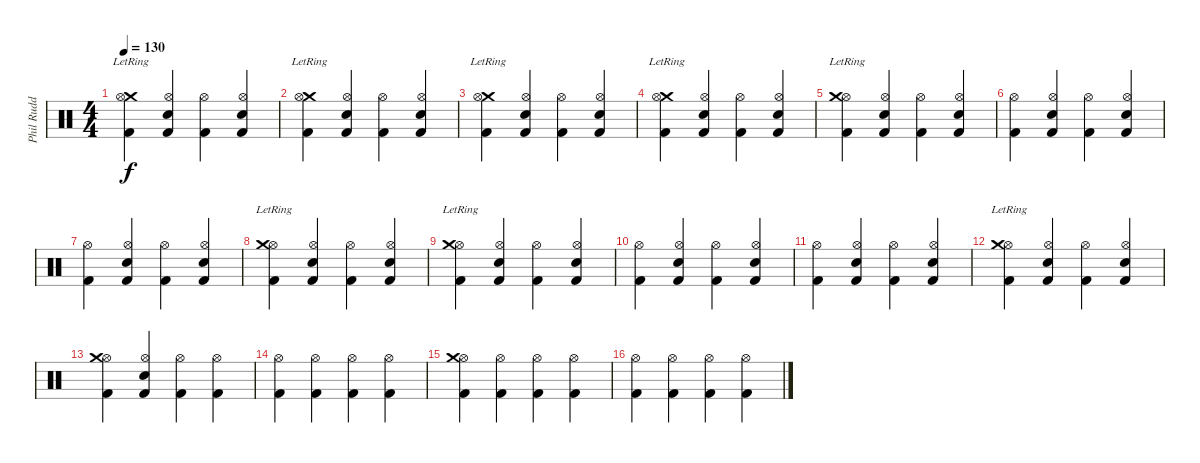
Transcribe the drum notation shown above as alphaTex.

\track ("Phil Rudd" "Phil Rudd") {instrument percussion}
\staff {score}
\articulation defaults
\ts (4 4)
\tempo 130
\clef neutral
\ks c
("Crash medium (hit)"{lr} "Kick (hit) 2" "Hi-Hat (open)").4{dy f} ("Kick (hit) 2" "Snare (hit) 2" "Hi-Hat (open)").4 ("Kick (hit) 2" "Hi-Hat (open)").4 ("Kick (hit) 2" "Snare (hit) 2" "Hi-Hat (open)").4 |
("Kick (hit) 2" "Crash medium (hit)"{lr} "Hi-Hat (open)").4 ("Kick (hit) 2" "Snare (hit) 2" "Hi-Hat (open)").4 ("Kick (hit) 2" "Hi-Hat (open)").4 ("Kick (hit) 2" "Snare (hit) 2" "Hi-Hat (open)").4 |
("Kick (hit) 2" "Crash medium (hit)"{lr} "Hi-Hat (open)").4 ("Kick (hit) 2" "Snare (hit) 2" "Hi-Hat (open)").4 ("Kick (hit) 2" "Hi-Hat (open)").4 ("Kick (hit) 2" "Snare (hit) 2" "Hi-Hat (open)").4 |
("Kick (hit) 2" "Crash medium (hit)"{lr} "Hi-Hat (open)").4 ("Kick (hit) 2" "Snare (hit) 2" "Hi-Hat (open)").4 ("Kick (hit) 2" "Hi-Hat (open)").4 ("Kick (hit) 2" "Snare (hit) 2" "Hi-Hat (open)").4 |
("Kick (hit) 2" "Hi-Hat (open)" "Crash medium (hit)"{lr}).4 ("Kick (hit) 2" "Hi-Hat (open)" "Snare (hit) 2").4 ("Kick (hit) 2" "Hi-Hat (open)").4 ("Kick (hit) 2" "Hi-Hat (open)" "Snare (hit) 2").4 |
("Kick (hit) 2" "Hi-Hat (open)").4 ("Kick (hit) 2" "Hi-Hat (open)" "Snare (hit) 2").4 ("Kick (hit) 2" "Hi-Hat (open)").4 ("Kick (hit) 2" "Hi-Hat (open)" "Snare (hit) 2").4 |
("Kick (hit) 2" "Hi-Hat (open)").4 ("Kick (hit) 2" "Hi-Hat (open)" "Snare (hit) 2").4 ("Kick (hit) 2" "Hi-Hat (open)").4 ("Kick (hit) 2" "Hi-Hat (open)" "Snare (hit) 2").4 |
("Kick (hit) 2" "Hi-Hat (open)" "Crash medium (hit)"{lr}).4 ("Kick (hit) 2" "Hi-Hat (open)" "Snare (hit) 2").4 ("Kick (hit) 2" "Hi-Hat (open)").4 ("Kick (hit) 2" "Hi-Hat (open)" "Snare (hit) 2").4 |
("Kick (hit) 2" "Hi-Hat (open)" "Crash medium (hit)"{lr}).4 ("Kick (hit) 2" "Hi-Hat (open)" "Snare (hit) 2").4 ("Kick (hit) 2" "Hi-Hat (open)").4 ("Kick (hit) 2" "Hi-Hat (open)" "Snare (hit) 2").4 |
("Kick (hit) 2" "Hi-Hat (open)").4 ("Kick (hit) 2" "Hi-Hat (open)" "Snare (hit) 2").4 ("Kick (hit) 2" "Hi-Hat (open)").4 ("Kick (hit) 2" "Hi-Hat (open)" "Snare (hit) 2").4 |
("Kick (hit) 2" "Hi-Hat (open)").4 ("Kick (hit) 2" "Hi-Hat (open)" "Snare (hit) 2").4 ("Kick (hit) 2" "Hi-Hat (open)").4 ("Kick (hit) 2" "Hi-Hat (open)" "Snare (hit) 2").4 |
("Kick (hit) 2" "Hi-Hat (open)" "Crash medium (hit)"{lr}).4 ("Kick (hit) 2" "Hi-Hat (open)" "Snare (hit) 2").4 ("Kick (hit) 2" "Hi-Hat (open)").4 ("Kick (hit) 2" "Hi-Hat (open)" "Snare (hit) 2").4 |
("Kick (hit) 2" "Hi-Hat (open)" "Crash medium (hit)").4 ("Kick (hit) 2" "Hi-Hat (open)" "Snare (hit) 2").4 ("Kick (hit) 2" "Hi-Hat (open)").4 ("Kick (hit) 2" "Hi-Hat (open)").4 |
("Kick (hit) 2" "Hi-Hat (open)").4 ("Kick (hit) 2" "Hi-Hat (open)").4 ("Kick (hit) 2" "Hi-Hat (open)").4 ("Kick (hit) 2" "Hi-Hat (open)").4 |
("Kick (hit) 2" "Hi-Hat (open)" "Crash medium (hit)").4 ("Kick (hit) 2" "Hi-Hat (open)").4 ("Kick (hit) 2" "Hi-Hat (open)").4 ("Kick (hit) 2" "Hi-Hat (open)").4 |
("Kick (hit) 2" "Hi-Hat (open)").4 ("Kick (hit) 2" "Hi-Hat (open)").4 ("Kick (hit) 2" "Hi-Hat (open)").4 ("Kick (hit) 2" "Hi-Hat (open)").4
